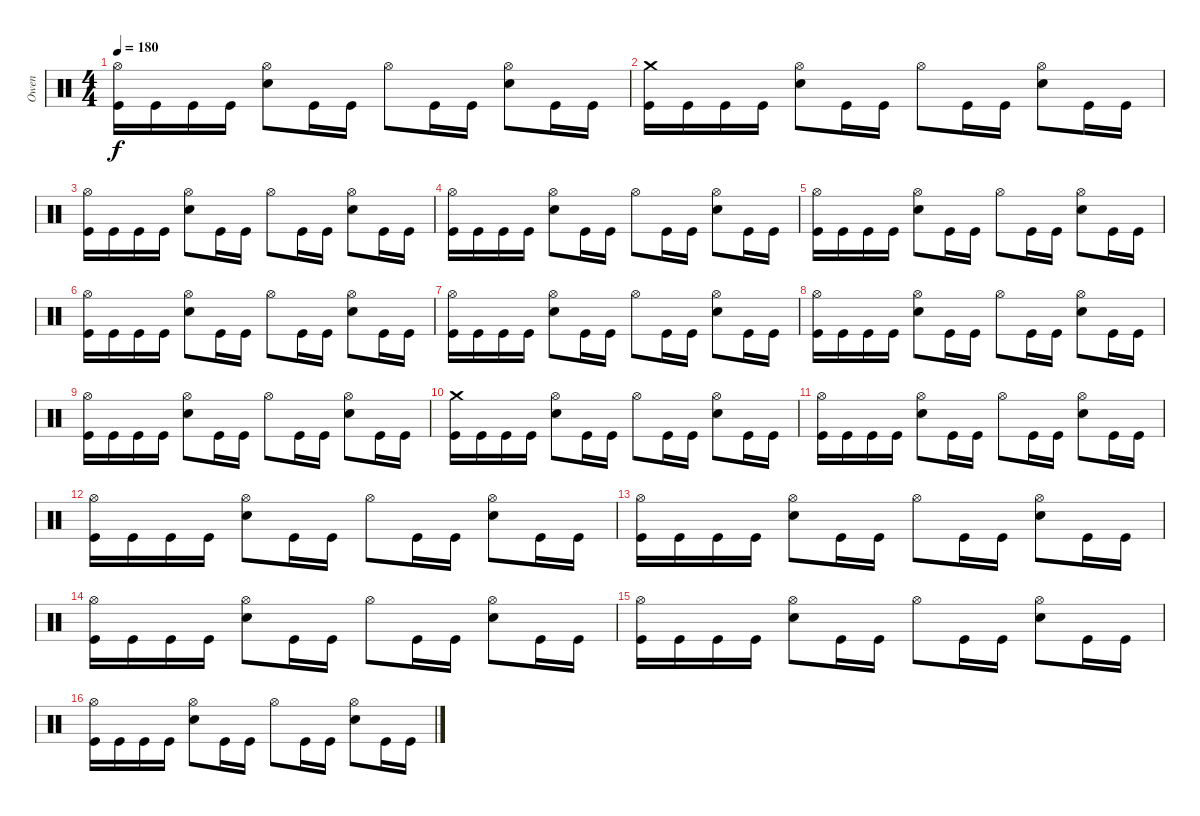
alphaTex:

\track ("Owen" "Owen") {instrument percussion}
\staff {score}
\articulation defaults
\ts (4 4)
\tempo 180
\clef neutral
\ks c
("Hi-Hat (open)" "Kick (hit)").16{dy f} "Kick (hit)".16 "Kick (hit)".16 "Kick (hit)".16 ("Hi-Hat (open)" "Snare (hit) 2").8 "Kick (hit)".16 "Kick (hit)".16 "Hi-Hat (open)".8 "Kick (hit)".16 "Kick (hit)".16 ("Hi-Hat (open)" "Snare (hit) 2").8 "Kick (hit)".16 "Kick (hit)".16 |
("Crash medium (hit)" "Kick (hit)").16 "Kick (hit)".16 "Kick (hit)".16 "Kick (hit)".16 ("Hi-Hat (open)" "Snare (hit) 2").8 "Kick (hit)".16 "Kick (hit)".16 "Hi-Hat (open)".8 "Kick (hit)".16 "Kick (hit)".16 ("Hi-Hat (open)" "Snare (hit) 2").8 "Kick (hit)".16 "Kick (hit)".16 |
("Hi-Hat (open)" "Kick (hit)").16 "Kick (hit)".16 "Kick (hit)".16 "Kick (hit)".16 ("Hi-Hat (open)" "Snare (hit) 2").8 "Kick (hit)".16 "Kick (hit)".16 "Hi-Hat (open)".8 "Kick (hit)".16 "Kick (hit)".16 ("Hi-Hat (open)" "Snare (hit) 2").8 "Kick (hit)".16 "Kick (hit)".16 |
("Hi-Hat (open)" "Kick (hit)").16 "Kick (hit)".16 "Kick (hit)".16 "Kick (hit)".16 ("Hi-Hat (open)" "Snare (hit) 2").8 "Kick (hit)".16 "Kick (hit)".16 "Hi-Hat (open)".8 "Kick (hit)".16 "Kick (hit)".16 ("Hi-Hat (open)" "Snare (hit) 2").8 "Kick (hit)".16 "Kick (hit)".16 |
("Hi-Hat (open)" "Kick (hit)").16 "Kick (hit)".16 "Kick (hit)".16 "Kick (hit)".16 ("Hi-Hat (open)" "Snare (hit) 2").8 "Kick (hit)".16 "Kick (hit)".16 "Hi-Hat (open)".8 "Kick (hit)".16 "Kick (hit)".16 ("Hi-Hat (open)" "Snare (hit) 2").8 "Kick (hit)".16 "Kick (hit)".16 |
("Hi-Hat (open)" "Kick (hit)").16 "Kick (hit)".16 "Kick (hit)".16 "Kick (hit)".16 ("Hi-Hat (open)" "Snare (hit) 2").8 "Kick (hit)".16 "Kick (hit)".16 "Hi-Hat (open)".8 "Kick (hit)".16 "Kick (hit)".16 ("Hi-Hat (open)" "Snare (hit) 2").8 "Kick (hit)".16 "Kick (hit)".16 |
("Hi-Hat (open)" "Kick (hit)").16 "Kick (hit)".16 "Kick (hit)".16 "Kick (hit)".16 ("Hi-Hat (open)" "Snare (hit) 2").8 "Kick (hit)".16 "Kick (hit)".16 "Hi-Hat (open)".8 "Kick (hit)".16 "Kick (hit)".16 ("Hi-Hat (open)" "Snare (hit) 2").8 "Kick (hit)".16 "Kick (hit)".16 |
("Hi-Hat (open)" "Kick (hit)").16 "Kick (hit)".16 "Kick (hit)".16 "Kick (hit)".16 ("Hi-Hat (open)" "Snare (hit) 2").8 "Kick (hit)".16 "Kick (hit)".16 "Hi-Hat (open)".8 "Kick (hit)".16 "Kick (hit)".16 ("Hi-Hat (open)" "Snare (hit) 2").8 "Kick (hit)".16 "Kick (hit)".16 |
("Hi-Hat (open)" "Kick (hit)").16 "Kick (hit)".16 "Kick (hit)".16 "Kick (hit)".16 ("Hi-Hat (open)" "Snare (hit) 2").8 "Kick (hit)".16 "Kick (hit)".16 "Hi-Hat (open)".8 "Kick (hit)".16 "Kick (hit)".16 ("Hi-Hat (open)" "Snare (hit) 2").8 "Kick (hit)".16 "Kick (hit)".16 |
("Crash medium (hit)" "Kick (hit)").16 "Kick (hit)".16 "Kick (hit)".16 "Kick (hit)".16 ("Hi-Hat (open)" "Snare (hit) 2").8 "Kick (hit)".16 "Kick (hit)".16 "Hi-Hat (open)".8 "Kick (hit)".16 "Kick (hit)".16 ("Hi-Hat (open)" "Snare (hit) 2").8 "Kick (hit)".16 "Kick (hit)".16 |
("Hi-Hat (open)" "Kick (hit)").16 "Kick (hit)".16 "Kick (hit)".16 "Kick (hit)".16 ("Hi-Hat (open)" "Snare (hit) 2").8 "Kick (hit)".16 "Kick (hit)".16 "Hi-Hat (open)".8 "Kick (hit)".16 "Kick (hit)".16 ("Hi-Hat (open)" "Snare (hit) 2").8 "Kick (hit)".16 "Kick (hit)".16 |
("Hi-Hat (open)" "Kick (hit)").16 "Kick (hit)".16 "Kick (hit)".16 "Kick (hit)".16 ("Hi-Hat (open)" "Snare (hit) 2").8 "Kick (hit)".16 "Kick (hit)".16 "Hi-Hat (open)".8 "Kick (hit)".16 "Kick (hit)".16 ("Hi-Hat (open)" "Snare (hit) 2").8 "Kick (hit)".16 "Kick (hit)".16 |
("Hi-Hat (open)" "Kick (hit)").16 "Kick (hit)".16 "Kick (hit)".16 "Kick (hit)".16 ("Hi-Hat (open)" "Snare (hit) 2").8 "Kick (hit)".16 "Kick (hit)".16 "Hi-Hat (open)".8 "Kick (hit)".16 "Kick (hit)".16 ("Hi-Hat (open)" "Snare (hit) 2").8 "Kick (hit)".16 "Kick (hit)".16 |
("Hi-Hat (open)" "Kick (hit)").16 "Kick (hit)".16 "Kick (hit)".16 "Kick (hit)".16 ("Hi-Hat (open)" "Snare (hit) 2").8 "Kick (hit)".16 "Kick (hit)".16 "Hi-Hat (open)".8 "Kick (hit)".16 "Kick (hit)".16 ("Hi-Hat (open)" "Snare (hit) 2").8 "Kick (hit)".16 "Kick (hit)".16 |
("Hi-Hat (open)" "Kick (hit)").16 "Kick (hit)".16 "Kick (hit)".16 "Kick (hit)".16 ("Hi-Hat (open)" "Snare (hit) 2").8 "Kick (hit)".16 "Kick (hit)".16 "Hi-Hat (open)".8 "Kick (hit)".16 "Kick (hit)".16 ("Hi-Hat (open)" "Snare (hit) 2").8 "Kick (hit)".16 "Kick (hit)".16 |
("Hi-Hat (open)" "Kick (hit)").16 "Kick (hit)".16 "Kick (hit)".16 "Kick (hit)".16 ("Hi-Hat (open)" "Snare (hit) 2").8 "Kick (hit)".16 "Kick (hit)".16 "Hi-Hat (open)".8 "Kick (hit)".16 "Kick (hit)".16 ("Hi-Hat (open)" "Snare (hit) 2").8 "Kick (hit)".16 "Kick (hit)".16
